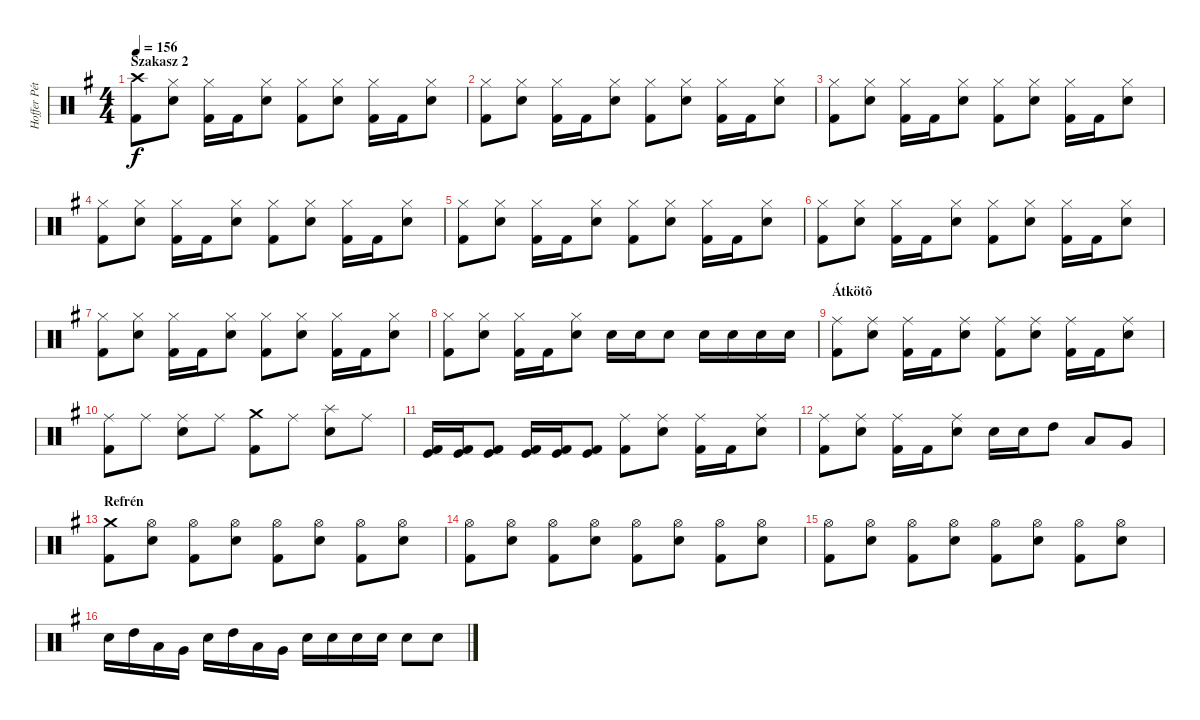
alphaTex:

\track ("Hoffer Péter" "Hoffer Pét") {instrument percussion}
\staff {score}
\articulation defaults
\ts (4 4)
\section ("" "Szakasz 2")
\tempo 156
\clef neutral
\ks eminor
("Crash high (hit)" "Kick (hit) 2").8{dy f} ("Hi-Hat (closed)" "Snare (hit) 2").8 ("Hi-Hat (closed)" "Kick (hit) 2").16 "Kick (hit) 2".16 ("Hi-Hat (closed)" "Snare (hit) 2").8 ("Hi-Hat (closed)" "Kick (hit) 2").8 ("Hi-Hat (closed)" "Snare (hit) 2").8 ("Hi-Hat (closed)" "Kick (hit) 2").16 "Kick (hit) 2".16 ("Hi-Hat (closed)" "Snare (hit) 2").8 |
("Hi-Hat (closed)" "Kick (hit) 2").8 ("Hi-Hat (closed)" "Snare (hit) 2").8 ("Hi-Hat (closed)" "Kick (hit) 2").16 "Kick (hit) 2".16 ("Hi-Hat (closed)" "Snare (hit) 2").8 ("Hi-Hat (closed)" "Kick (hit) 2").8 ("Hi-Hat (closed)" "Snare (hit) 2").8 ("Hi-Hat (closed)" "Kick (hit) 2").16 "Kick (hit) 2".16 ("Hi-Hat (closed)" "Snare (hit) 2").8 |
("Hi-Hat (closed)" "Kick (hit) 2").8 ("Hi-Hat (closed)" "Snare (hit) 2").8 ("Hi-Hat (closed)" "Kick (hit) 2").16 "Kick (hit) 2".16 ("Hi-Hat (closed)" "Snare (hit) 2").8 ("Hi-Hat (closed)" "Kick (hit) 2").8 ("Hi-Hat (closed)" "Snare (hit) 2").8 ("Hi-Hat (closed)" "Kick (hit) 2").16 "Kick (hit) 2".16 ("Hi-Hat (closed)" "Snare (hit) 2").8 |
("Hi-Hat (closed)" "Kick (hit) 2").8 ("Hi-Hat (closed)" "Snare (hit) 2").8 ("Hi-Hat (closed)" "Kick (hit) 2").16 "Kick (hit) 2".16 ("Hi-Hat (closed)" "Snare (hit) 2").8 ("Hi-Hat (closed)" "Kick (hit) 2").8 ("Hi-Hat (closed)" "Snare (hit) 2").8 ("Hi-Hat (closed)" "Kick (hit) 2").16 "Kick (hit) 2".16 ("Hi-Hat (closed)" "Snare (hit) 2").8 |
("Hi-Hat (closed)" "Kick (hit) 2").8 ("Hi-Hat (closed)" "Snare (hit) 2").8 ("Hi-Hat (closed)" "Kick (hit) 2").16 "Kick (hit) 2".16 ("Hi-Hat (closed)" "Snare (hit) 2").8 ("Hi-Hat (closed)" "Kick (hit) 2").8 ("Hi-Hat (closed)" "Snare (hit) 2").8 ("Hi-Hat (closed)" "Kick (hit) 2").16 "Kick (hit) 2".16 ("Hi-Hat (closed)" "Snare (hit) 2").8 |
("Hi-Hat (closed)" "Kick (hit) 2").8 ("Hi-Hat (closed)" "Snare (hit) 2").8 ("Hi-Hat (closed)" "Kick (hit) 2").16 "Kick (hit) 2".16 ("Hi-Hat (closed)" "Snare (hit) 2").8 ("Hi-Hat (closed)" "Kick (hit) 2").8 ("Hi-Hat (closed)" "Snare (hit) 2").8 ("Hi-Hat (closed)" "Kick (hit) 2").16 "Kick (hit) 2".16 ("Hi-Hat (closed)" "Snare (hit) 2").8 |
("Hi-Hat (closed)" "Kick (hit) 2").8 ("Hi-Hat (closed)" "Snare (hit) 2").8 ("Hi-Hat (closed)" "Kick (hit) 2").16 "Kick (hit) 2".16 ("Hi-Hat (closed)" "Snare (hit) 2").8 ("Hi-Hat (closed)" "Kick (hit) 2").8 ("Hi-Hat (closed)" "Snare (hit) 2").8 ("Hi-Hat (closed)" "Kick (hit) 2").16 "Kick (hit) 2".16 ("Hi-Hat (closed)" "Snare (hit) 2").8 |
("Hi-Hat (closed)" "Kick (hit) 2").8 ("Hi-Hat (closed)" "Snare (hit) 2").8 ("Hi-Hat (closed)" "Kick (hit) 2").16 "Kick (hit) 2".16 ("Hi-Hat (closed)" "Snare (hit) 2").8 "Snare (hit) 2".16 "Snare (hit) 2".16 "Snare (hit) 2".8 "Snare (hit) 2".16 "Snare (hit) 2".16 "Snare (hit) 2".16 "Snare (hit) 2".16 |
\section ("" "Átkötõ")
("Ride (middle)" "Kick (hit) 2").8 ("Ride (middle)" "Snare (hit) 2").8 ("Ride (middle)" "Kick (hit) 2").16 "Kick (hit) 2".16 ("Ride (middle)" "Snare (hit) 2").8 ("Ride (middle)" "Kick (hit) 2").8 ("Ride (middle)" "Snare (hit) 2").8 ("Ride (middle)" "Kick (hit) 2").16 "Kick (hit) 2".16 ("Ride (middle)" "Snare (hit) 2").8 |
("Ride (middle)" "Kick (hit) 2").8 "Ride (middle)".8 ("Ride (middle)" "Snare (hit) 2").8 "Ride (middle)".8 ("Crash medium (hit)" "Kick (hit) 2").8 "Ride (middle)".8 ("Splash (hit)" "Snare (hit) 2").8 "Ride (middle)".8 |
("Kick (hit) 2" "Kick (hit)").16 ("Kick (hit) 2" "Kick (hit)").16 ("Kick (hit) 2" "Kick (hit)").8 ("Kick (hit) 2" "Kick (hit)").16 ("Kick (hit) 2" "Kick (hit)").16 ("Kick (hit) 2" "Kick (hit)").8 ("Ride (middle)" "Kick (hit) 2").8 ("Ride (middle)" "Snare (hit) 2").8 ("Ride (middle)" "Kick (hit) 2").16 "Kick (hit) 2".16 ("Ride (middle)" "Snare (hit) 2").8 |
("Ride (middle)" "Kick (hit) 2").8 ("Ride (middle)" "Snare (hit) 2").8 ("Ride (middle)" "Kick (hit) 2").16 "Kick (hit) 2".16 ("Ride (middle)" "Snare (hit) 2").8 "Snare (hit) 2".16 "Snare (hit) 2".16 "High Tom (hit)".8 "Low Tom (hit)".8 "Very Low Tom (hit)".8 |
\section ("" "Refrén")
("Crash medium (hit)" "Kick (hit) 2").8 ("Hi-Hat (open)" "Snare (hit) 2").8 ("Hi-Hat (open)" "Kick (hit) 2").8 ("Hi-Hat (open)" "Snare (hit) 2").8 ("Hi-Hat (open)" "Kick (hit) 2").8 ("Hi-Hat (open)" "Snare (hit) 2").8 ("Hi-Hat (open)" "Kick (hit) 2").8 ("Hi-Hat (open)" "Snare (hit) 2").8 |
("Hi-Hat (open)" "Kick (hit) 2").8 ("Hi-Hat (open)" "Snare (hit) 2").8 ("Hi-Hat (open)" "Kick (hit) 2").8 ("Hi-Hat (open)" "Snare (hit) 2").8 ("Hi-Hat (open)" "Kick (hit) 2").8 ("Hi-Hat (open)" "Snare (hit) 2").8 ("Hi-Hat (open)" "Kick (hit) 2").8 ("Hi-Hat (open)" "Snare (hit) 2").8 |
("Hi-Hat (open)" "Kick (hit) 2").8 ("Hi-Hat (open)" "Snare (hit) 2").8 ("Hi-Hat (open)" "Kick (hit) 2").8 ("Hi-Hat (open)" "Snare (hit) 2").8 ("Hi-Hat (open)" "Kick (hit) 2").8 ("Hi-Hat (open)" "Snare (hit) 2").8 ("Hi-Hat (open)" "Kick (hit) 2").8 ("Hi-Hat (open)" "Snare (hit) 2").8 |
"Snare (hit) 2".16 "High Tom (hit)".16 "Low Tom (hit)".16 "Very Low Tom (hit)".16 "Snare (hit) 2".16 "High Tom (hit)".16 "Low Tom (hit)".16 "Very Low Tom (hit)".16 "Snare (hit) 2".16 "Snare (hit) 2".16 "Snare (hit) 2".16 "Snare (hit) 2".16 "Snare (hit) 2".8 "Snare (hit) 2".8
